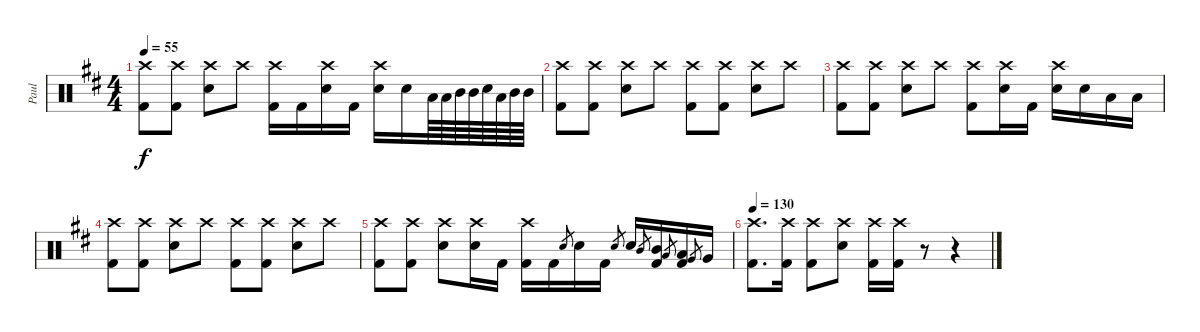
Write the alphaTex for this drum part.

\track ("Paul" "Paul") {instrument percussion}
\staff {score}
\articulation defaults
\ts (4 4)
\tempo 55
\clef neutral
\ks d
("Crash high (hit)" "Kick (hit) 2").8{dy f} ("Crash high (hit)" "Kick (hit) 2").8 ("Crash high (hit)" "Electric Snare (hit)").8 "Crash high (hit)".8 ("Crash high (hit)" "Kick (hit) 2").16 "Kick (hit) 2".16 ("Crash high (hit)" "Electric Snare (hit)").16 "Kick (hit) 2".16 ("Crash high (hit)" "Electric Snare (hit)").16 "Electric Snare (hit)".16 "Low Tom (hit)".64 "Low Tom (hit)".64 "Mid Tom (hit)".64 "Mid Tom (hit)".64 "Electric Snare (hit)".64 "Low Tom (hit)".64 "Mid Tom (hit)".64 "Mid Tom (hit)".64 |
("Crash high (hit)" "Kick (hit) 2").8 ("Crash high (hit)" "Kick (hit) 2").8 ("Crash high (hit)" "Electric Snare (hit)").8 "Crash high (hit)".8 ("Crash high (hit)" "Kick (hit) 2").8 ("Crash high (hit)" "Kick (hit) 2").8 ("Crash high (hit)" "Electric Snare (hit)").8 "Crash high (hit)".8 |
("Crash high (hit)" "Kick (hit) 2").8 ("Crash high (hit)" "Kick (hit) 2").8 ("Crash high (hit)" "Electric Snare (hit)").8 "Crash high (hit)".8 ("Crash high (hit)" "Kick (hit) 2").8 ("Crash high (hit)" "Electric Snare (hit)").16 "Kick (hit) 2".16 ("Crash high (hit)" "Electric Snare (hit)").16 "Electric Snare (hit)".16 "Low Tom (hit)".16 "Low Tom (hit)".16 |
("Crash high (hit)" "Kick (hit) 2").8 ("Crash high (hit)" "Kick (hit) 2").8 ("Crash high (hit)" "Electric Snare (hit)").8 "Crash high (hit)".8 ("Crash high (hit)" "Kick (hit) 2").8 ("Crash high (hit)" "Kick (hit) 2").8 ("Crash high (hit)" "Electric Snare (hit)").8 "Crash high (hit)".8 |
("Crash high (hit)" "Kick (hit) 2").8 ("Crash high (hit)" "Kick (hit) 2").8 ("Crash high (hit)" "Electric Snare (hit)").8 ("Crash high (hit)" "Electric Snare (hit)").16 "Kick (hit) 2".16 ("Crash high (hit)" "Kick (hit) 2").16 "Kick (hit) 2".16 "Electric Snare (hit)".8{gr} "Electric Snare (hit)".16 "Kick (hit) 2".16 "Electric Snare (hit)".8{gr} "Electric Snare (hit)".16 "Mid Tom (hit)".8{gr} ("Mid Tom (hit)" "Kick (hit) 2").16 "Low Tom (hit)".8{gr} ("Low Tom (hit)" "Kick (hit) 2").16 "Very Low Tom (hit)".8{gr} "Very Low Tom (hit)".16 |
\tempo 130
("Crash high (hit)" "Kick (hit) 2").8{d} ("Crash high (hit)" "Kick (hit) 2").16 ("Crash high (hit)" "Kick (hit) 2").8 ("Crash high (hit)" "Electric Snare (hit)").8 ("Crash high (hit)" "Kick (hit) 2").16 ("Crash high (hit)" "Kick (hit) 2").16 r.8 r.4
